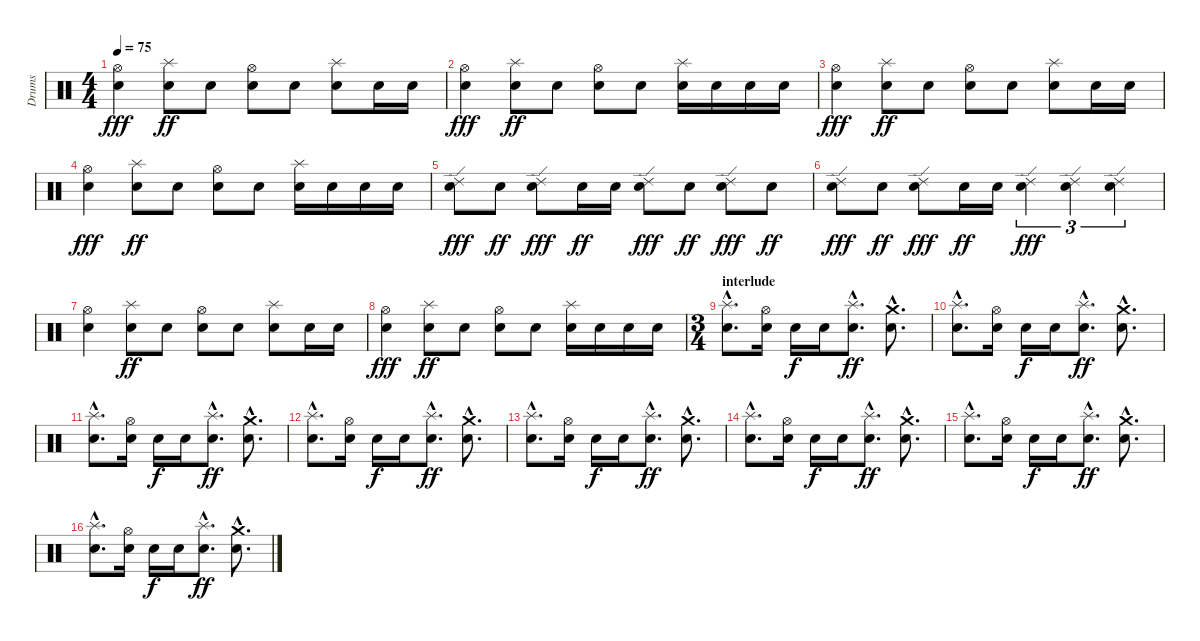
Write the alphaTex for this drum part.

\track ("Drums" "Drums") {instrument percussion}
\staff {score}
\articulation defaults
\ts (4 4)
\tempo 75
\clef neutral
\ks c
("Electric Snare (hit)" "Hi-Hat (open)").4{dy fff} ("Splash (hit)" "Snare (hit) 2").8{dy ff} "Snare (hit) 2".8 ("Hi-Hat (open)" "Snare (hit) 2").8 "Electric Snare (hit)".8 ("Splash (hit)" "Snare (hit) 2").8 "Snare (hit) 2".16 "Snare (hit) 2".16 |
("Electric Snare (hit)" "Hi-Hat (open)").4{dy fff} ("Splash (hit)" "Snare (hit) 2").8{dy ff} "Snare (hit) 2".8 ("Hi-Hat (open)" "Snare (hit) 2").8 "Electric Snare (hit)".8 ("Splash (hit)" "Snare (hit) 2").16 "Snare (hit) 2".16 "Snare (hit) 2".16 "Snare (hit) 2".16 |
("Electric Snare (hit)" "Hi-Hat (open)").4{dy fff} ("Splash (hit)" "Snare (hit) 2").8{dy ff} "Snare (hit) 2".8 ("Hi-Hat (open)" "Snare (hit) 2").8 "Electric Snare (hit)".8 ("Splash (hit)" "Snare (hit) 2").8 "Snare (hit) 2".16 "Snare (hit) 2".16 |
("Electric Snare (hit)" "Hi-Hat (open)").4{dy fff} ("Splash (hit)" "Snare (hit) 2").8{dy ff} "Snare (hit) 2".8 ("Hi-Hat (open)" "Snare (hit) 2").8 "Electric Snare (hit)".8 ("Splash (hit)" "Snare (hit) 2").16 "Snare (hit) 2".16 "Snare (hit) 2".16 "Snare (hit) 2".16 |
("Electric Snare (hit)" "Ride (edge) 2").8{dy fff} "Electric Snare (hit)".8{dy ff} ("Electric Snare (hit)" "Ride (edge) 2").8{dy fff} "Electric Snare (hit)".16{dy ff} "Electric Snare (hit)".16 ("Electric Snare (hit)" "Ride (edge) 2").8{dy fff} "Electric Snare (hit)".8{dy ff} ("Electric Snare (hit)" "Ride (edge) 2").8{dy fff} "Electric Snare (hit)".8{dy ff} |
("Electric Snare (hit)" "Ride (edge) 2").8{dy fff} "Electric Snare (hit)".8{dy ff} ("Electric Snare (hit)" "Ride (edge) 2").8{dy fff} "Electric Snare (hit)".16{dy ff} "Electric Snare (hit)".16 ("Electric Snare (hit)" "Ride (edge) 2").4{tu (3 2) dy fff} ("Electric Snare (hit)" "Ride (edge) 2").4{tu (3 2)} ("Electric Snare (hit)" "Ride (edge) 2").4{tu (3 2)} |
("Electric Snare (hit)" "Hi-Hat (open)").4 ("Splash (hit)" "Snare (hit) 2").8{dy ff} "Snare (hit) 2".8 ("Hi-Hat (open)" "Snare (hit) 2").8 "Electric Snare (hit)".8 ("Splash (hit)" "Snare (hit) 2").8 "Snare (hit) 2".16 "Snare (hit) 2".16 |
("Electric Snare (hit)" "Hi-Hat (open)").4{dy fff} ("Splash (hit)" "Snare (hit) 2").8{dy ff} "Snare (hit) 2".8 ("Hi-Hat (open)" "Snare (hit) 2").8 "Electric Snare (hit)".8 ("Splash (hit)" "Snare (hit) 2").16 "Snare (hit) 2".16 "Snare (hit) 2".16 "Snare (hit) 2".16 |
\ts (3 4)
\section ("" "interlude")
("Splash (hit)"{hac} "Snare (hit) 2"{hac}).8{d} ("Hi-Hat (open)" "Electric Snare (hit)").16 "Electric Snare (hit)".16{dy f} "Electric Snare (hit)".16 ("Splash (hit)"{hac} "Snare (hit) 2"{hac}).8{d dy ff} ("Crash medium (hit)"{hac} "Electric Snare (hit)"{hac}).8{d} |
("Splash (hit)"{hac} "Snare (hit) 2"{hac}).8{d} ("Hi-Hat (open)" "Electric Snare (hit)").16 "Electric Snare (hit)".16{dy f} "Electric Snare (hit)".16 ("Splash (hit)"{hac} "Snare (hit) 2"{hac}).8{d dy ff} ("Crash medium (hit)"{hac} "Electric Snare (hit)"{hac}).8{d} |
("Splash (hit)"{hac} "Snare (hit) 2"{hac}).8{d} ("Hi-Hat (open)" "Electric Snare (hit)").16 "Electric Snare (hit)".16{dy f} "Electric Snare (hit)".16 ("Splash (hit)"{hac} "Snare (hit) 2"{hac}).8{d dy ff} ("Crash medium (hit)"{hac} "Electric Snare (hit)"{hac}).8{d} |
("Splash (hit)"{hac} "Snare (hit) 2"{hac}).8{d} ("Hi-Hat (open)" "Electric Snare (hit)").16 "Electric Snare (hit)".16{dy f} "Electric Snare (hit)".16 ("Splash (hit)"{hac} "Snare (hit) 2"{hac}).8{d dy ff} ("Crash medium (hit)"{hac} "Electric Snare (hit)"{hac}).8{d} |
("Splash (hit)"{hac} "Snare (hit) 2"{hac}).8{d} ("Hi-Hat (open)" "Electric Snare (hit)").16 "Electric Snare (hit)".16{dy f} "Electric Snare (hit)".16 ("Splash (hit)"{hac} "Snare (hit) 2"{hac}).8{d dy ff} ("Crash medium (hit)"{hac} "Electric Snare (hit)"{hac}).8{d} |
("Splash (hit)"{hac} "Snare (hit) 2"{hac}).8{d} ("Hi-Hat (open)" "Electric Snare (hit)").16 "Electric Snare (hit)".16{dy f} "Electric Snare (hit)".16 ("Splash (hit)"{hac} "Snare (hit) 2"{hac}).8{d dy ff} ("Crash medium (hit)"{hac} "Electric Snare (hit)"{hac}).8{d} |
("Splash (hit)"{hac} "Snare (hit) 2"{hac}).8{d} ("Hi-Hat (open)" "Electric Snare (hit)").16 "Electric Snare (hit)".16{dy f} "Electric Snare (hit)".16 ("Splash (hit)"{hac} "Snare (hit) 2"{hac}).8{d dy ff} ("Crash medium (hit)"{hac} "Electric Snare (hit)"{hac}).8{d} |
("Splash (hit)"{hac} "Snare (hit) 2"{hac}).8{d} ("Hi-Hat (open)" "Electric Snare (hit)").16 "Electric Snare (hit)".16{dy f} "Electric Snare (hit)".16 ("Splash (hit)"{hac} "Snare (hit) 2"{hac}).8{d dy ff} ("Crash medium (hit)"{hac} "Electric Snare (hit)"{hac}).8{d}
